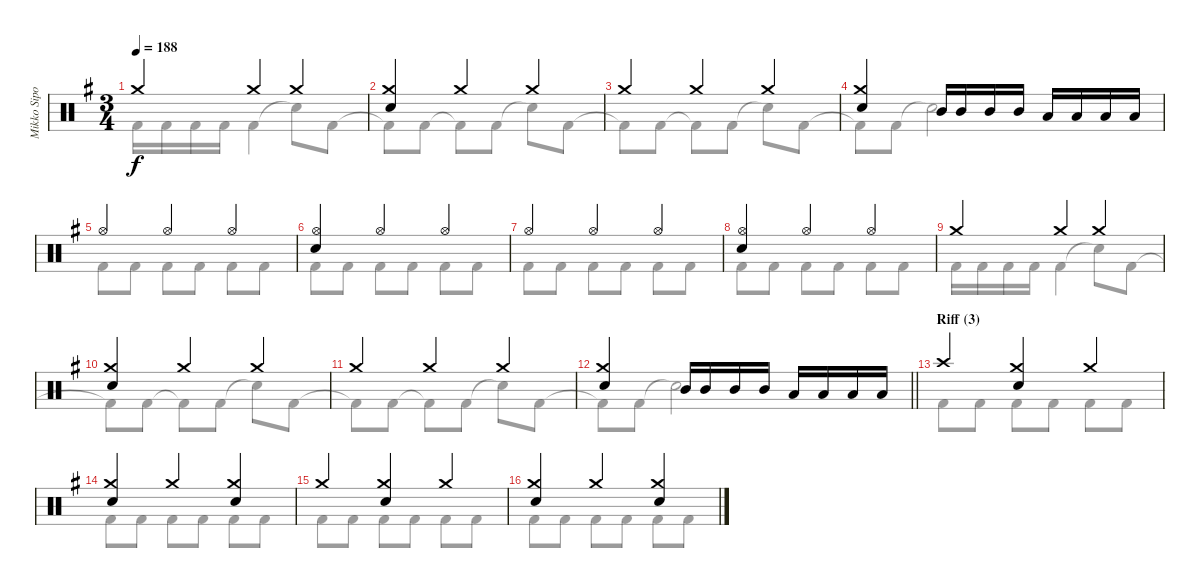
\track ("Mikko Sipola (drums)" "Mikko Sipo") {instrument percussion}
\staff {score}
\articulation defaults
\voice
\ts (3 4)
\tempo 188
\clef neutral
\ks eminor "Crash medium (hit)".4{dy f} "Crash medium (hit)".4 "Crash medium (hit)".4
|
("Crash medium (hit)" "Electric Snare (hit)").4 "Crash medium (hit)".4 "Crash medium (hit)".4 |
"Crash medium (hit)".4 "Crash medium (hit)".4 "Crash medium (hit)".4 |
("Crash medium (hit)" "Electric Snare (hit)").4 "Mid Tom (hit)".16 "Mid Tom (hit)".16 "Mid Tom (hit)".16 "Mid Tom (hit)".16 "Low Tom (hit)".16 "Low Tom (hit)".16 "Low Tom (hit)".16 "Low Tom (hit)".16 |
"Hi-Hat (open)".4 "Hi-Hat (open)".4 "Hi-Hat (open)".4 |
("Hi-Hat (open)" "Electric Snare (hit)").4 "Hi-Hat (open)".4 "Hi-Hat (open)".4 |
"Hi-Hat (open)".4 "Hi-Hat (open)".4 "Hi-Hat (open)".4 |
("Hi-Hat (open)" "Electric Snare (hit)").4 "Hi-Hat (open)".4 "Hi-Hat (open)".4 |
"Crash medium (hit)".4 "Crash medium (hit)".4 "Crash medium (hit)".4 |
("Crash medium (hit)" "Electric Snare (hit)").4 "Crash medium (hit)".4 "Crash medium (hit)".4 |
"Crash medium (hit)".4 "Crash medium (hit)".4 "Crash medium (hit)".4 |
\barLineRight lightlight
("Crash medium (hit)" "Electric Snare (hit)").4 "Mid Tom (hit)".16 "Mid Tom (hit)".16 "Mid Tom (hit)".16 "Mid Tom (hit)".16 "Low Tom (hit)".16 "Low Tom (hit)".16 "Low Tom (hit)".16 "Low Tom (hit)".16 |
\section ("" "Riff (3)")
"Crash high (hit)".4 ("Crash medium (hit)" "Electric Snare (hit)").4 "Crash medium (hit)".4 |
("Crash medium (hit)" "Electric Snare (hit)").4 "Crash medium (hit)".4 ("Crash medium (hit)" "Electric Snare (hit)").4 |
"Crash medium (hit)".4 ("Crash medium (hit)" "Electric Snare (hit)").4 "Crash medium (hit)".4 |
("Crash medium (hit)" "Electric Snare (hit)").4 "Crash medium (hit)".4 ("Crash medium (hit)" "Electric Snare (hit)").4
\voice
\clef neutral
\ottava regular
\simile none
\ks eminor "Kick (hit) 2".16{dy f} "Kick (hit) 2".16 "Kick (hit) 2".16 "Kick (hit) 2".16 "Kick (hit) 2".4 "Snare (hit)"{t}.8 "Kick (hit) 2".8
|
"Kick (hit) 2"{t}.8 "Kick (hit) 2".8 "Kick (hit) 2"{t}.8 "Kick (hit) 2".8 "Snare (hit)"{t}.8 "Kick (hit) 2".8 |
"Kick (hit) 2"{t}.8 "Kick (hit) 2".8 "Kick (hit) 2"{t}.8 "Kick (hit) 2".8 "Snare (hit)"{t}.8 "Kick (hit) 2".8 |
"Kick (hit) 2"{t}.8 "Kick (hit) 2".8 "Snare (hit)"{t}.2 |
"Kick (hit) 2".8 "Kick (hit) 2".8 "Kick (hit) 2".8 "Kick (hit) 2".8 "Kick (hit) 2".8 "Kick (hit) 2".8 |
"Kick (hit) 2".8 "Kick (hit) 2".8 "Kick (hit) 2".8 "Kick (hit) 2".8 "Kick (hit) 2".8 "Kick (hit) 2".8 |
"Kick (hit) 2".8 "Kick (hit) 2".8 "Kick (hit) 2".8 "Kick (hit) 2".8 "Kick (hit) 2".8 "Kick (hit) 2".8 |
"Kick (hit) 2".8 "Kick (hit) 2".8 "Kick (hit) 2".8 "Kick (hit) 2".8 "Kick (hit) 2".8 "Kick (hit) 2".8 |
"Kick (hit) 2".16 "Kick (hit) 2".16 "Kick (hit) 2".16 "Kick (hit) 2".16 "Kick (hit) 2".4 "Snare (hit)"{t}.8 "Kick (hit) 2".8 |
"Kick (hit) 2"{t}.8 "Kick (hit) 2".8 "Kick (hit) 2"{t}.8 "Kick (hit) 2".8 "Snare (hit)"{t}.8 "Kick (hit) 2".8 |
"Kick (hit) 2"{t}.8 "Kick (hit) 2".8 "Kick (hit) 2"{t}.8 "Kick (hit) 2".8 "Snare (hit)"{t}.8 "Kick (hit) 2".8 |
\barLineRight lightlight "Kick (hit) 2"{t}.8 "Kick (hit) 2".8 "Snare (hit)"{t}.2
|
"Kick (hit) 2".8 "Kick (hit) 2".8 "Kick (hit) 2".8 "Kick (hit) 2".8 "Kick (hit) 2".8 "Kick (hit) 2".8 |
"Kick (hit) 2".8 "Kick (hit) 2".8 "Kick (hit) 2".8 "Kick (hit) 2".8 "Kick (hit) 2".8 "Kick (hit) 2".8 |
"Kick (hit) 2".8 "Kick (hit) 2".8 "Kick (hit) 2".8 "Kick (hit) 2".8 "Kick (hit) 2".8 "Kick (hit) 2".8 |
"Kick (hit) 2".8 "Kick (hit) 2".8 "Kick (hit) 2".8 "Kick (hit) 2".8 "Kick (hit) 2".8 "Kick (hit) 2".8
